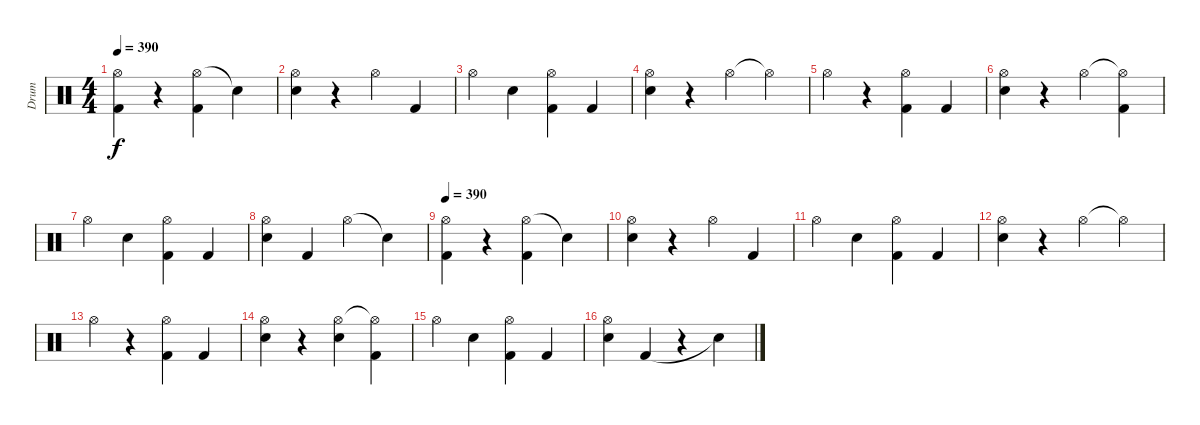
\track ("Drum" "Drum") {instrument percussion}
\staff {score}
\articulation defaults
\ts (4 4)
\tempo 390
\clef neutral
\ks c
("Hi-Hat (open)" "Kick (hit) 2").4{dy f} r.4 ("Hi-Hat (open)" "Kick (hit) 2").4 "Snare (hit)"{t}.4 |
("Hi-Hat (open)" "Electric Snare (hit)").4 r.4 "Hi-Hat (open)".4 "Kick (hit) 2".4 |
"Hi-Hat (open)".4 "Electric Snare (hit)".4 ("Hi-Hat (open)" "Kick (hit) 2").4 "Kick (hit) 2".4 |
("Hi-Hat (open)" "Electric Snare (hit)").4 r.4 "Hi-Hat (open)".4 "Hi-Hat (open)"{t}.4 |
"Hi-Hat (open)".4 r.4 ("Hi-Hat (open)" "Kick (hit) 2").4 "Kick (hit) 2".4 |
("Hi-Hat (open)" "Electric Snare (hit)").4 r.4 "Hi-Hat (open)".4 ("Hi-Hat (open)"{t} "Kick (hit) 2").4 |
"Hi-Hat (open)".4 "Electric Snare (hit)".4 ("Hi-Hat (open)" "Kick (hit) 2").4 "Kick (hit) 2".4 |
("Hi-Hat (open)" "Electric Snare (hit)").4 "Kick (hit) 2".4 "Hi-Hat (open)".4 "Snare (hit)"{t}.4 |
\tempo 390
("Hi-Hat (open)" "Kick (hit) 2").4 r.4 ("Hi-Hat (open)" "Kick (hit) 2").4 "Snare (hit)"{t}.4 |
("Hi-Hat (open)" "Electric Snare (hit)").4 r.4 "Hi-Hat (open)".4 "Kick (hit) 2".4 |
"Hi-Hat (open)".4 "Electric Snare (hit)".4 ("Hi-Hat (open)" "Kick (hit) 2").4 "Kick (hit) 2".4 |
("Hi-Hat (open)" "Electric Snare (hit)").4 r.4 "Hi-Hat (open)".4 "Hi-Hat (open)"{t}.4 |
"Hi-Hat (open)".4 r.4 ("Hi-Hat (open)" "Kick (hit) 2").4 "Kick (hit) 2".4 |
("Hi-Hat (open)" "Electric Snare (hit)").4 r.4 ("Hi-Hat (open)" "Electric Snare (hit)").4 ("Hi-Hat (open)"{t} "Kick (hit) 2").4 |
"Hi-Hat (open)".4 "Electric Snare (hit)".4 ("Hi-Hat (open)" "Kick (hit) 2").4 "Kick (hit) 2".4 |
("Hi-Hat (open)" "Electric Snare (hit)").4 "Kick (hit) 2".4 r.4 "Snare (hit)"{t}.4
